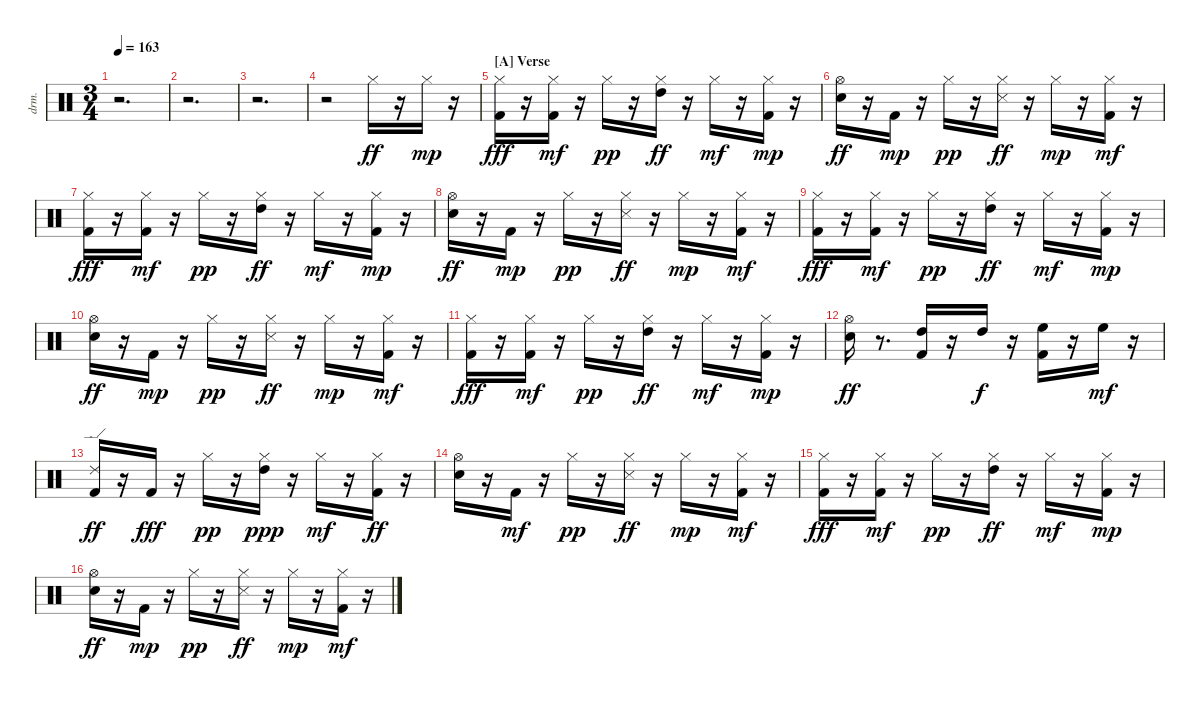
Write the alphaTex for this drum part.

\bracketExtendMode nobrackets
\track ("EZdrummer 3" "drm.") {instrument percussion}
\staff {score}
\articulation defaults
\ts (3 4)
\tempo 163
\clef neutral
\ks aminor
r.2{d dy ff beam Down} |
r.2{d beam Down} |
r.2{d beam Down} |
r.2{beam Down} "Hi-Hat (closed)"{acc #}.16{beam Down} r.16{beam Down} "Hi-Hat (closed)"{acc #}.16{dy mp beam Down} r.16{beam Down} |
\section ("A" "Verse")
("Kick (hit) 2" "Hi-Hat (closed)"{acc #}).16{dy fff beam Down} r.16{beam Down} ("Kick (hit) 2" "Hi-Hat (closed)"{acc #}).16{dy mf beam Down} r.16{beam Down} "Hi-Hat (closed)"{acc #}.16{dy pp beam Down} r.16{beam Down} ("Hi-Hat (closed)"{acc #} "High Tom (hit)").16{dy ff beam Down} r.16{beam Down} "Hi-Hat (closed)"{acc #}.16{dy mf beam Down} r.16{beam Down} ("Kick (hit) 2" "Hi-Hat (closed)"{acc #}).16{dy mp beam Down} r.16{beam Down} |
("Snare (hit) 2" "Hi-Hat (open)"{acc #}).16{dy ff beam Down} r.16{beam Down} "Kick (hit) 2".16{dy mp beam Down} r.16{beam Down} "Hi-Hat (closed)"{acc #}.16{dy pp beam Down} r.16{beam Down} ("Snare (side stick) 3"{acc #} "Hi-Hat (closed)"{acc #}).16{dy ff beam Down} r.16{beam Down} "Hi-Hat (closed)"{acc #}.16{dy mp beam Down} r.16{beam Down} ("Kick (hit) 2" "Hi-Hat (closed)"{acc #}).16{dy mf beam Down} r.16{beam Down} |
("Kick (hit) 2" "Hi-Hat (closed)"{acc #}).16{dy fff beam Down} r.16{beam Down} ("Kick (hit) 2" "Hi-Hat (closed)"{acc #}).16{dy mf beam Down} r.16{beam Down} "Hi-Hat (closed)"{acc #}.16{dy pp beam Down} r.16{beam Down} ("Hi-Hat (closed)"{acc #} "High Tom (hit)").16{dy ff beam Down} r.16{beam Down} "Hi-Hat (closed)"{acc #}.16{dy mf beam Down} r.16{beam Down} ("Kick (hit) 2" "Hi-Hat (closed)"{acc #}).16{dy mp beam Down} r.16{beam Down} |
("Snare (hit) 2" "Hi-Hat (open)"{acc #}).16{dy ff beam Down} r.16{beam Down} "Kick (hit) 2".16{dy mp beam Down} r.16{beam Down} "Hi-Hat (closed)"{acc #}.16{dy pp beam Down} r.16{beam Down} ("Snare (side stick) 3"{acc #} "Hi-Hat (closed)"{acc #}).16{dy ff beam Down} r.16{beam Down} "Hi-Hat (closed)"{acc #}.16{dy mp beam Down} r.16{beam Down} ("Kick (hit) 2" "Hi-Hat (closed)"{acc #}).16{dy mf beam Down} r.16{beam Down} |
("Kick (hit) 2" "Hi-Hat (closed)"{acc #}).16{dy fff beam Down} r.16{beam Down} ("Kick (hit) 2" "Hi-Hat (closed)"{acc #}).16{dy mf beam Down} r.16{beam Down} "Hi-Hat (closed)"{acc #}.16{dy pp beam Down} r.16{beam Down} ("Hi-Hat (closed)"{acc #} "High Tom (hit)").16{dy ff beam Down} r.16{beam Down} "Hi-Hat (closed)"{acc #}.16{dy mf beam Down} r.16{beam Down} ("Kick (hit) 2" "Hi-Hat (closed)"{acc #}).16{dy mp beam Down} r.16{beam Down} |
("Snare (hit) 2" "Hi-Hat (open)"{acc #}).16{dy ff beam Down} r.16{beam Down} "Kick (hit) 2".16{dy mp beam Down} r.16{beam Down} "Hi-Hat (closed)"{acc #}.16{dy pp beam Down} r.16{beam Down} ("Snare (side stick) 3"{acc #} "Hi-Hat (closed)"{acc #}).16{dy ff beam Down} r.16{beam Down} "Hi-Hat (closed)"{acc #}.16{dy mp beam Down} r.16{beam Down} ("Kick (hit) 2" "Hi-Hat (closed)"{acc #}).16{dy mf beam Down} r.16{beam Down} |
("Kick (hit) 2" "Hi-Hat (closed)"{acc #}).16{dy fff beam Down} r.16{beam Down} ("Kick (hit) 2" "Hi-Hat (closed)"{acc #}).16{dy mf beam Down} r.16{beam Down} "Hi-Hat (closed)"{acc #}.16{dy pp beam Down} r.16{beam Down} ("Hi-Hat (closed)"{acc #} "High Tom (hit)").16{dy ff beam Down} r.16{beam Down} "Hi-Hat (closed)"{acc #}.16{dy mf beam Down} r.16{beam Down} ("Kick (hit) 2" "Hi-Hat (closed)"{acc #}).16{dy mp beam Down} r.16{beam Down} |
("Snare (hit) 2" "Hi-Hat (open)"{acc #}).16{dy ff beam Down} r.8{d beam Down} ("Kick (hit) 2" "High Tom (hit)").16{beam Up} r.16{beam Up} "High Tom (hit)".16{dy f beam Up} r.16{beam Down} ("Kick (hit) 2" "High Floor Tom (hit)").16{beam Down} r.16{beam Down} "High Floor Tom (hit)".16{dy mf beam Down} r.16{beam Down} |
("Kick (hit) 2" "Ride (edge) 2").16{dy ff beam Up} r.16{beam Up} "Kick (hit) 2".16{dy fff beam Up} r.16{beam Down} "Hi-Hat (closed)"{acc #}.16{dy pp beam Down} r.16{beam Down} ("Hi-Hat (closed)"{acc #} "High Tom (hit)").16{dy ppp beam Down} r.16{beam Down} "Hi-Hat (closed)"{acc #}.16{dy mf beam Down} r.16{beam Down} ("Kick (hit) 2" "Hi-Hat (closed)"{acc #}).16{dy ff beam Down} r.16{beam Down} |
("Snare (hit) 2" "Hi-Hat (open)"{acc #}).16{beam Down} r.16{beam Down} "Kick (hit) 2".16{dy mf beam Down} r.16{beam Down} "Hi-Hat (closed)"{acc #}.16{dy pp beam Down} r.16{beam Down} ("Snare (side stick) 3"{acc #} "Hi-Hat (closed)"{acc #}).16{dy ff beam Down} r.16{beam Down} "Hi-Hat (closed)"{acc #}.16{dy mp beam Down} r.16{beam Down} ("Kick (hit) 2" "Hi-Hat (closed)"{acc #}).16{dy mf beam Down} r.16{beam Down} |
("Kick (hit) 2" "Hi-Hat (closed)"{acc #}).16{dy fff beam Down} r.16{beam Down} ("Kick (hit) 2" "Hi-Hat (closed)"{acc #}).16{dy mf beam Down} r.16{beam Down} "Hi-Hat (closed)"{acc #}.16{dy pp beam Down} r.16{beam Down} ("Hi-Hat (closed)"{acc #} "High Tom (hit)").16{dy ff beam Down} r.16{beam Down} "Hi-Hat (closed)"{acc #}.16{dy mf beam Down} r.16{beam Down} ("Kick (hit) 2" "Hi-Hat (closed)"{acc #}).16{dy mp beam Down} r.16{beam Down} |
("Snare (hit) 2" "Hi-Hat (open)"{acc #}).16{dy ff beam Down} r.16{beam Down} "Kick (hit) 2".16{dy mp beam Down} r.16{beam Down} "Hi-Hat (closed)"{acc #}.16{dy pp beam Down} r.16{beam Down} ("Snare (side stick) 3"{acc #} "Hi-Hat (closed)"{acc #}).16{dy ff beam Down} r.16{beam Down} "Hi-Hat (closed)"{acc #}.16{dy mp beam Down} r.16{beam Down} ("Kick (hit) 2" "Hi-Hat (closed)"{acc #}).16{dy mf beam Down} r.16{beam Down}
